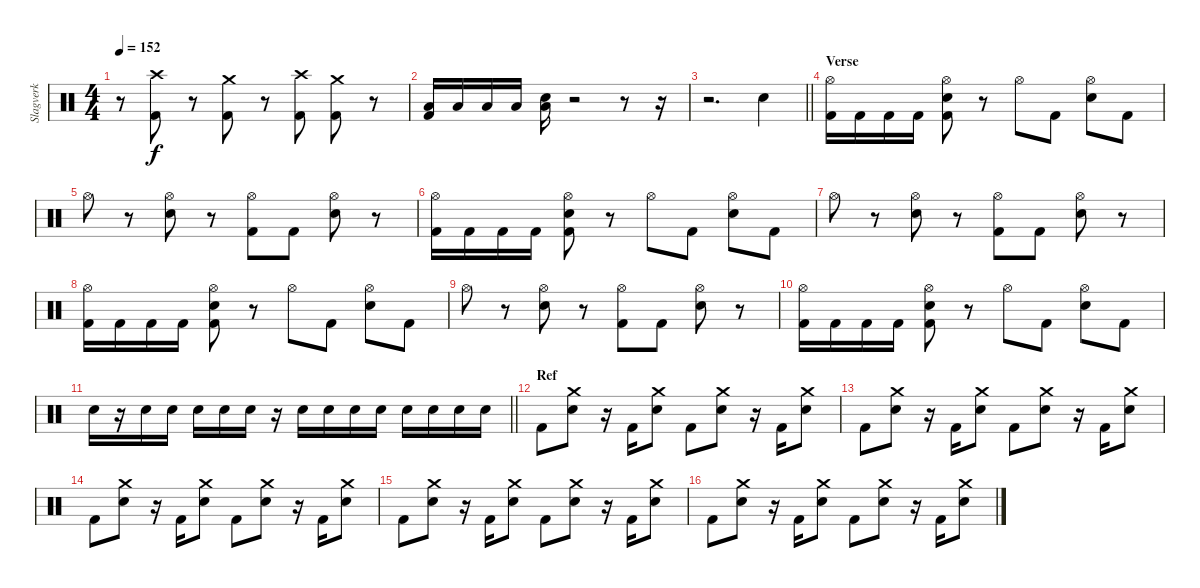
\track ("Slagverk" "Slagverk") {instrument percussion}
\staff
\articulation defaults
\ts (4 4)
\tempo 152
\clef neutral
\ks c
r.8{dy f} ("Crash high (hit)" "Kick (hit) 2").8 r.8 ("Crash medium (hit)" "Kick (hit) 2").8 r.8 ("Crash high (hit)" "Kick (hit) 2").8 ("Crash medium (hit)" "Kick (hit) 2").8 r.8 |
("Low Tom (hit)" "Kick (hit) 2").16 "Low Tom (hit)".16 "Low Tom (hit)".16 "Low Tom (hit)".16 ("Electric Snare (hit)" "Low Tom (hit)").16 r.2 r.8 r.16 |
\barLineRight lightlight
r.2{d} "Electric Snare (hit)".4 |
\section ("" "Verse")
("Hi-Hat (open)" "Kick (hit) 2").16 "Kick (hit) 2".16 "Kick (hit) 2".16 "Kick (hit) 2".16 ("Hi-Hat (open)" "Electric Snare (hit)" "Kick (hit) 2").8 r.8 "Hi-Hat (open)".8 "Kick (hit) 2".8 ("Hi-Hat (open)" "Electric Snare (hit)").8 "Kick (hit) 2".8 |
"Hi-Hat (open)".8 r.8 ("Hi-Hat (open)" "Electric Snare (hit)").8 r.8 ("Hi-Hat (open)" "Kick (hit) 2").8 "Kick (hit) 2".8 ("Hi-Hat (open)" "Electric Snare (hit)").8 r.8 |
("Hi-Hat (open)" "Kick (hit) 2").16 "Kick (hit) 2".16 "Kick (hit) 2".16 "Kick (hit) 2".16 ("Hi-Hat (open)" "Electric Snare (hit)" "Kick (hit) 2").8 r.8 "Hi-Hat (open)".8 "Kick (hit) 2".8 ("Hi-Hat (open)" "Electric Snare (hit)").8 "Kick (hit) 2".8 |
"Hi-Hat (open)".8 r.8 ("Hi-Hat (open)" "Electric Snare (hit)").8 r.8 ("Hi-Hat (open)" "Kick (hit) 2").8 "Kick (hit) 2".8 ("Hi-Hat (open)" "Electric Snare (hit)").8 r.8 |
("Hi-Hat (open)" "Kick (hit) 2").16 "Kick (hit) 2".16 "Kick (hit) 2".16 "Kick (hit) 2".16 ("Hi-Hat (open)" "Electric Snare (hit)" "Kick (hit) 2").8 r.8 "Hi-Hat (open)".8 "Kick (hit) 2".8 ("Hi-Hat (open)" "Electric Snare (hit)").8 "Kick (hit) 2".8 |
"Hi-Hat (open)".8 r.8 ("Hi-Hat (open)" "Electric Snare (hit)").8 r.8 ("Hi-Hat (open)" "Kick (hit) 2").8 "Kick (hit) 2".8 ("Hi-Hat (open)" "Electric Snare (hit)").8 r.8 |
("Hi-Hat (open)" "Kick (hit) 2").16 "Kick (hit) 2".16 "Kick (hit) 2".16 "Kick (hit) 2".16 ("Hi-Hat (open)" "Electric Snare (hit)" "Kick (hit) 2").8 r.8 "Hi-Hat (open)".8 "Kick (hit) 2".8 ("Hi-Hat (open)" "Electric Snare (hit)").8 "Kick (hit) 2".8 |
\barLineRight lightlight "Electric Snare (hit)".16
r.16 "Electric Snare (hit)".16 "Electric Snare (hit)".16 "Electric Snare (hit)".16 "Electric Snare (hit)".16 "Electric Snare (hit)".16 r.16 "Electric Snare (hit)".16 "Electric Snare (hit)".16 "Electric Snare (hit)".16 "Electric Snare (hit)".16 "Electric Snare (hit)".16 "Electric Snare (hit)".16 "Electric Snare (hit)".16 "Electric Snare (hit)".16 |
\section ("" "Ref")
"Kick (hit) 2".8 ("Crash medium (hit)" "Electric Snare (hit)").8 r.16 "Kick (hit) 2".16 ("Crash medium (hit)" "Electric Snare (hit)").8 "Kick (hit) 2".8 ("Crash medium (hit)" "Electric Snare (hit)").8 r.16 "Kick (hit) 2".16 ("Crash medium (hit)" "Electric Snare (hit)").8 |
"Kick (hit) 2".8 ("Crash medium (hit)" "Electric Snare (hit)").8 r.16 "Kick (hit) 2".16 ("Crash medium (hit)" "Electric Snare (hit)").8 "Kick (hit) 2".8 ("Crash medium (hit)" "Electric Snare (hit)").8 r.16 "Kick (hit) 2".16 ("Crash medium (hit)" "Electric Snare (hit)").8 |
"Kick (hit) 2".8 ("Crash medium (hit)" "Electric Snare (hit)").8 r.16 "Kick (hit) 2".16 ("Crash medium (hit)" "Electric Snare (hit)").8 "Kick (hit) 2".8 ("Crash medium (hit)" "Electric Snare (hit)").8 r.16 "Kick (hit) 2".16 ("Crash medium (hit)" "Electric Snare (hit)").8 |
"Kick (hit) 2".8 ("Crash medium (hit)" "Electric Snare (hit)").8 r.16 "Kick (hit) 2".16 ("Crash medium (hit)" "Electric Snare (hit)").8 "Kick (hit) 2".8 ("Crash medium (hit)" "Electric Snare (hit)").8 r.16 "Kick (hit) 2".16 ("Crash medium (hit)" "Electric Snare (hit)").8 |
"Kick (hit) 2".8 ("Crash medium (hit)" "Electric Snare (hit)").8 r.16 "Kick (hit) 2".16 ("Crash medium (hit)" "Electric Snare (hit)").8 "Kick (hit) 2".8 ("Crash medium (hit)" "Electric Snare (hit)").8 r.16 "Kick (hit) 2".16 ("Crash medium (hit)" "Electric Snare (hit)").8
